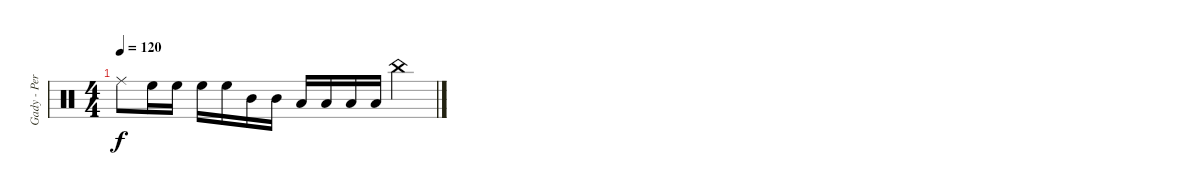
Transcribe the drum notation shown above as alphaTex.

\track ("Gady - Perkusja" "Gady - Per") {instrument percussion}
\staff {score}
\articulation defaults
\ts (4 4)
\tempo 120
\clef neutral
\ks c "Ride (middle)".8{dy f} "High Floor Tom (hit)".16 "High Floor Tom (hit)".16 "High Floor Tom (hit)".16 "High Floor Tom (hit)".16 "Mid Tom (hit)".16 "Mid Tom (hit)".16 "Low Tom (hit)".16 "Low Tom (hit)".16 "Low Floor Tom (hit)".16 "Low Floor Tom (hit)".16 "China (hit)".4
